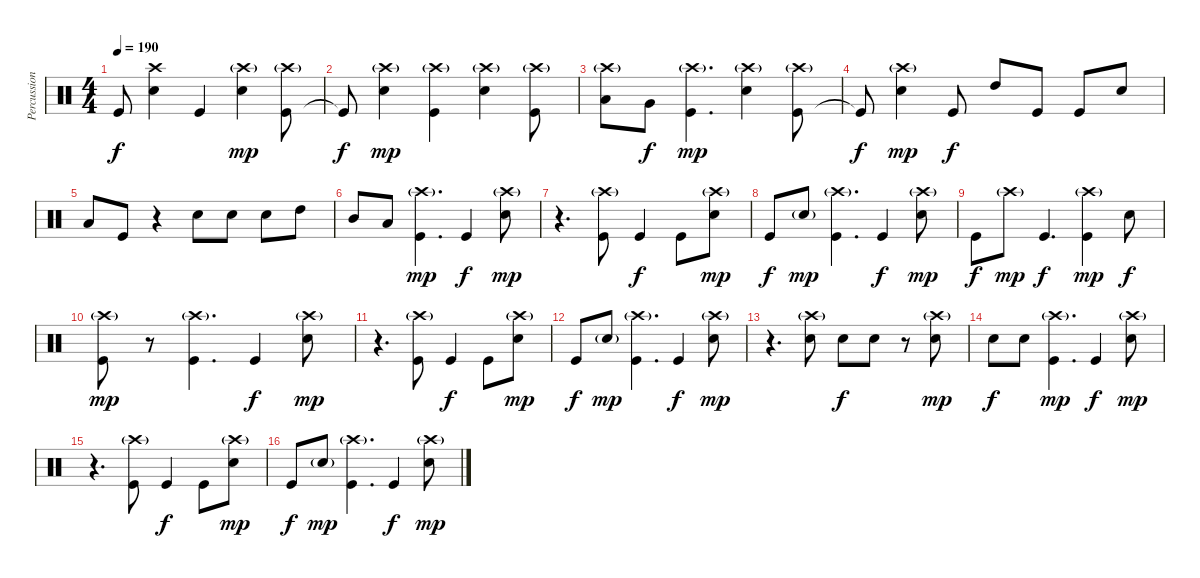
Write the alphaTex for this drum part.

\track ("Percussion" "Percussion") {instrument percussion}
\staff {score}
\articulation defaults
\ts (4 4)
\tempo 190
\clef neutral
\ks c "Kick (hit)"{t}.8{dy f}
("Electric Snare (hit)" "Crash high (hit)").4 "Kick (hit)".4 ("Electric Snare (hit)" "Crash high (hit)"{g}).4{dy mp} ("Kick (hit)" "Crash high (hit)"{g}).8 |
"Kick (hit)"{t}.8{dy f} ("Electric Snare (hit)" "Crash high (hit)"{g}).4{dy mp} ("Kick (hit)" "Crash high (hit)"{g}).4 ("Electric Snare (hit)" "Crash high (hit)"{g}).4 ("Kick (hit)" "Crash high (hit)"{g}).8 |
("Low Tom (hit)" "Crash high (hit)"{g}).8 "Very Low Tom (hit)".8{dy f} ("Kick (hit)" "Crash high (hit)"{g}).4{d dy mp} ("Electric Snare (hit)" "Crash high (hit)"{g}).4 ("Kick (hit)" "Crash high (hit)"{g}).8 |
"Kick (hit)"{t}.8{dy f} ("Electric Snare (hit)" "Crash high (hit)"{g}).4{dy mp} "Kick (hit)".8{dy f} "High Tom (hit)".8 "Kick (hit)".8 "Kick (hit)".8 "Electric Snare (hit)".8 |
"Low Tom (hit)".8 "Kick (hit)".8 r.4 "Electric Snare (hit)".8 "Electric Snare (hit)".8 "Electric Snare (hit)".8 "High Tom (hit)".8 |
"Mid Tom (hit)".8 "Low Tom (hit)".8 ("Kick (hit)" "Crash high (hit)"{g}).4{d dy mp} "Kick (hit)".4{dy f} ("Electric Snare (hit)" "Crash high (hit)"{g}).8{dy mp} |
r.4{d} ("Kick (hit)" "Crash high (hit)"{g}).8 "Kick (hit)".4{dy f} "Kick (hit)".8 ("Electric Snare (hit)" "Crash high (hit)"{g}).8{dy mp} |
"Kick (hit)".8{dy f} "Electric Snare (hit)"{g}.8{dy mp} ("Kick (hit)" "Crash high (hit)"{g}).4{d} "Kick (hit)".4{dy f} ("Electric Snare (hit)" "Crash high (hit)"{g}).8{dy mp} |
"Kick (hit)".8{dy f} "Crash high (hit)"{g}.8{dy mp} "Kick (hit)".4{d dy f} ("Kick (hit)" "Crash high (hit)"{g}).4{dy mp} "Electric Snare (hit)".8{dy f} |
("Kick (hit)" "Crash high (hit)"{g}).8{dy mp} r.8 ("Kick (hit)" "Crash high (hit)"{g}).4{d} "Kick (hit)".4{dy f} ("Electric Snare (hit)" "Crash high (hit)"{g}).8{dy mp} |
r.4{d} ("Kick (hit)" "Crash high (hit)"{g}).8 "Kick (hit)".4{dy f} "Kick (hit)".8 ("Electric Snare (hit)" "Crash high (hit)"{g}).8{dy mp} |
"Kick (hit)".8{dy f} "Electric Snare (hit)"{g}.8{dy mp} ("Kick (hit)" "Crash high (hit)"{g}).4{d} "Kick (hit)".4{dy f} ("Electric Snare (hit)" "Crash high (hit)"{g}).8{dy mp} |
r.4{d} ("Electric Snare (hit)" "Crash high (hit)"{g}).8 "Electric Snare (hit)".8{dy f} "Electric Snare (hit)".8 r.8 ("Electric Snare (hit)" "Crash high (hit)"{g}).8{dy mp} |
"Electric Snare (hit)".8{dy f} "Electric Snare (hit)".8 ("Kick (hit)" "Crash high (hit)"{g}).4{d dy mp} "Kick (hit)".4{dy f} ("Electric Snare (hit)" "Crash high (hit)"{g}).8{dy mp} |
r.4{d} ("Kick (hit)" "Crash high (hit)"{g}).8 "Kick (hit)".4{dy f} "Kick (hit)".8 ("Electric Snare (hit)" "Crash high (hit)"{g}).8{dy mp} |
"Kick (hit)".8{dy f} "Electric Snare (hit)"{g}.8{dy mp} ("Kick (hit)" "Crash high (hit)"{g}).4{d} "Kick (hit)".4{dy f} ("Electric Snare (hit)" "Crash high (hit)"{g}).8{dy mp}
